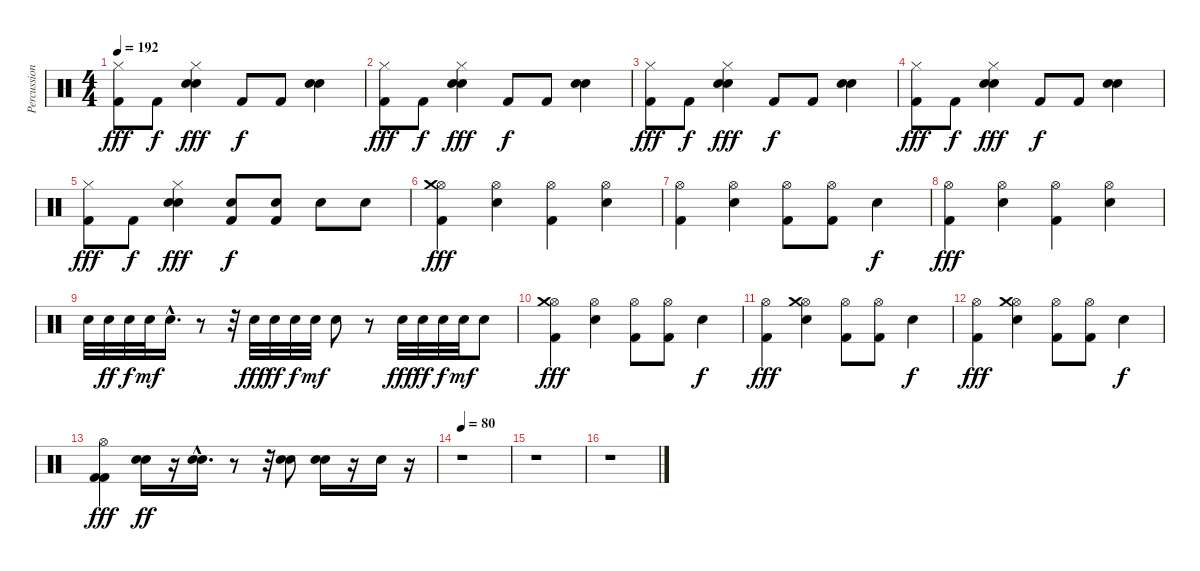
\track ("Percussion" "Percussion") {instrument percussion}
\staff {score}
\articulation defaults
\ts (4 4)
\tempo 192
\clef neutral
\ks c
("Hi-Hat (closed)" "Kick (hit) 2").8{dy fff} "Kick (hit) 2".8{dy f} ("Hi-Hat (closed)" "Electric Snare (hit)" "Electric Snare (hit)").4{dy fff} "Kick (hit) 2".8{dy f} "Kick (hit) 2".8 ("Electric Snare (hit)" "Electric Snare (hit)").4 |
("Hi-Hat (closed)" "Kick (hit) 2").8{dy fff} "Kick (hit) 2".8{dy f} ("Hi-Hat (closed)" "Electric Snare (hit)" "Electric Snare (hit)").4{dy fff} "Kick (hit) 2".8{dy f} "Kick (hit) 2".8 ("Electric Snare (hit)" "Electric Snare (hit)").4 |
("Hi-Hat (closed)" "Kick (hit) 2").8{dy fff} "Kick (hit) 2".8{dy f} ("Hi-Hat (closed)" "Electric Snare (hit)" "Electric Snare (hit)").4{dy fff} "Kick (hit) 2".8{dy f} "Kick (hit) 2".8 ("Electric Snare (hit)" "Electric Snare (hit)").4 |
("Hi-Hat (closed)" "Kick (hit) 2").8{dy fff} "Kick (hit) 2".8{dy f} ("Hi-Hat (closed)" "Electric Snare (hit)" "Electric Snare (hit)").4{dy fff} "Kick (hit) 2".8{dy f} "Kick (hit) 2".8 ("Electric Snare (hit)" "Electric Snare (hit)").4 |
("Hi-Hat (closed)" "Kick (hit) 2").8{dy fff} "Kick (hit) 2".8{dy f} ("Hi-Hat (closed)" "Electric Snare (hit)" "Electric Snare (hit)").4{dy fff} ("Electric Snare (hit)" "Kick (hit) 2").8{dy f} ("Electric Snare (hit)" "Kick (hit) 2").8 "Electric Snare (hit)".8 "Electric Snare (hit)".8 |
("Hi-Hat (open)" "Crash medium (hit)" "Kick (hit) 2").4{dy fff} ("Hi-Hat (open)" "Snare (hit) 2").4 ("Hi-Hat (open)" "Kick (hit) 2").4 ("Hi-Hat (open)" "Snare (hit) 2").4 |
("Hi-Hat (open)" "Kick (hit) 2").4 ("Hi-Hat (open)" "Snare (hit) 2").4 ("Hi-Hat (open)" "Kick (hit) 2").8 ("Hi-Hat (open)" "Kick (hit) 2").8 "Snare (hit) 2".4{dy f} |
("Hi-Hat (open)" "Kick (hit) 2").4{dy fff} ("Hi-Hat (open)" "Snare (hit) 2").4 ("Hi-Hat (open)" "Kick (hit) 2").4 ("Hi-Hat (open)" "Snare (hit) 2").4 |
"Electric Snare (hit)".32 "Electric Snare (hit)".32{dy ff} "Electric Snare (hit)".32{dy f} "Electric Snare (hit)".32{dy mf} "Electric Snare (hit)"{hac}.16{d} r.8 r.32 "Electric Snare (hit)".32{dy fff} "Electric Snare (hit)".32{dy ff} "Electric Snare (hit)".32{dy f} "Electric Snare (hit)".32{dy mf} "Electric Snare (hit)".8 r.8 "Electric Snare (hit)".32{dy fff} "Electric Snare (hit)".32{dy ff} "Electric Snare (hit)".32{dy f} "Electric Snare (hit)".32{dy mf} "Electric Snare (hit)".8 |
("Hi-Hat (open)" "Crash medium (hit)" "Kick (hit) 2").4{dy fff} ("Hi-Hat (open)" "Snare (hit) 2").4 ("Hi-Hat (open)" "Kick (hit) 2").8 ("Hi-Hat (open)" "Kick (hit) 2").8 "Snare (hit) 2".4{dy f} |
("Hi-Hat (open)" "Kick (hit) 2").4{dy fff} ("Hi-Hat (open)" "Crash medium (hit)" "Snare (hit) 2").4 ("Hi-Hat (open)" "Kick (hit) 2").8 ("Hi-Hat (open)" "Kick (hit) 2").8 "Snare (hit) 2".4{dy f} |
("Hi-Hat (open)" "Kick (hit) 2").4{dy fff} ("Hi-Hat (open)" "Crash medium (hit)" "Snare (hit) 2").4 ("Hi-Hat (open)" "Kick (hit) 2").8 ("Hi-Hat (open)" "Kick (hit) 2").8 "Snare (hit) 2".4{dy f} |
("Kick (hit) 2" "Kick (hit) 2" "Hi-Hat (open)").4{dy fff} ("Electric Snare (hit)" "Snare (hit) 2").16{dy ff} r.16 ("Electric Snare (hit)" "Snare (hit) 2"{hac}).16{d} r.8 r.32 ("Electric Snare (hit)" "Snare (hit) 2").8 ("Electric Snare (hit)" "Snare (hit) 2").16 r.16 "Snare (hit) 2".16 r.16 |
\tempo 80
r.1 |
r.1 |
r.1
